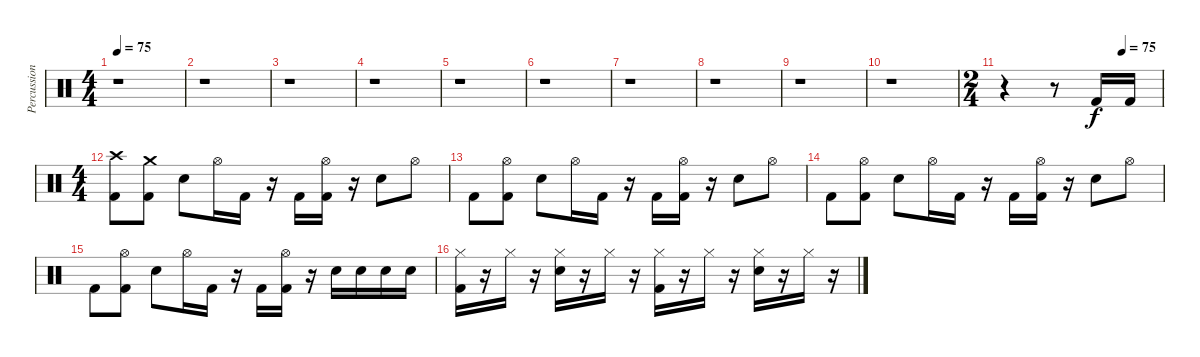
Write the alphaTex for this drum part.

\track ("Percussion" "Percussion") {instrument percussion}
\staff {score}
\articulation defaults
\ts (4 4)
\tempo 75
\tempo 73
\tempo 75
\clef neutral
\ks c
r.1{dy f} |
r.1 |
r.1 |
r.1 |
r.1 |
r.1 |
r.1 |
r.1 |
r.1 |
r.1 |
\ts (2 4)
\tempo (75 0.75)
r.4 r.8 "Kick (hit) 2".16 "Kick (hit) 2".16 |
\ts (4 4)
("Crash high (hit)" "Kick (hit) 2").8 ("Crash medium (hit)" "Kick (hit) 2").8 "Electric Snare (hit)".8 "Hi-Hat (open)".16 "Kick (hit) 2".16 r.16 "Kick (hit) 2".16 ("Hi-Hat (open)" "Kick (hit) 2").16 r.16 "Electric Snare (hit)".8 "Hi-Hat (open)".8 |
"Kick (hit) 2".8 ("Hi-Hat (open)" "Kick (hit) 2").8 "Electric Snare (hit)".8 "Hi-Hat (open)".16 "Kick (hit) 2".16 r.16 "Kick (hit) 2".16 ("Hi-Hat (open)" "Kick (hit) 2").16 r.16 "Electric Snare (hit)".8 "Hi-Hat (open)".8 |
"Kick (hit) 2".8 ("Hi-Hat (open)" "Kick (hit) 2").8 "Electric Snare (hit)".8 "Hi-Hat (open)".16 "Kick (hit) 2".16 r.16 "Kick (hit) 2".16 ("Hi-Hat (open)" "Kick (hit) 2").16 r.16 "Electric Snare (hit)".8 "Hi-Hat (open)".8 |
"Kick (hit) 2".8 ("Hi-Hat (open)" "Kick (hit) 2").8 "Electric Snare (hit)".8 "Hi-Hat (open)".16 "Kick (hit) 2".16 r.16 "Kick (hit) 2".16 ("Hi-Hat (open)" "Kick (hit) 2").16 r.16 "Electric Snare (hit)".16 "Electric Snare (hit)".16 "Electric Snare (hit)".16 "Electric Snare (hit)".16 |
("Hi-Hat (closed)" "Kick (hit) 2").16 r.16 "Hi-Hat (closed)".16 r.16 ("Hi-Hat (closed)" "Electric Snare (hit)").16 r.16 "Hi-Hat (closed)".16 r.16 ("Hi-Hat (closed)" "Kick (hit) 2").16 r.16 "Hi-Hat (closed)".16 r.16 ("Hi-Hat (closed)" "Electric Snare (hit)").16 r.16 "Hi-Hat (closed)".16 r.16
